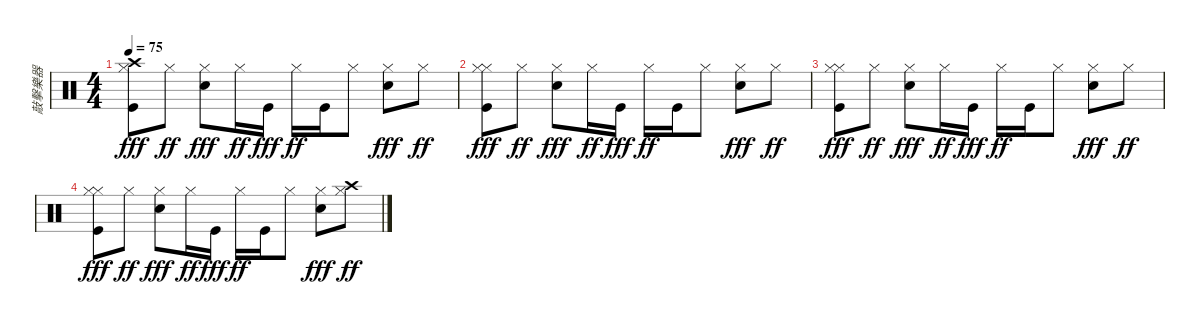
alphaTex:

\track ("敲擊樂器" "敲擊樂器") {instrument percussion}
\staff {score}
\articulation defaults
\ts (4 4)
\tempo 75
\clef neutral
\ks c
("Hi-Hat (closed)" "Crash high (hit)" "Kick (hit)").8{dy fff} "Hi-Hat (closed)".8{dy ff} ("Hi-Hat (closed)" "Snare (hit) 2").8{dy fff} "Hi-Hat (closed)".16{dy ff} "Kick (hit)".16{dy fff} "Hi-Hat (closed)".16{dy ff} "Kick (hit)".16 "Hi-Hat (closed)".8 ("Hi-Hat (closed)" "Snare (hit) 2").8{dy fff} "Hi-Hat (closed)".8{dy ff} |
("Hi-Hat (closed)" "Hi-Hat (closed)" "Kick (hit)").8{dy fff} "Hi-Hat (closed)".8{dy ff} ("Hi-Hat (closed)" "Snare (hit) 2").8{dy fff} "Hi-Hat (closed)".16{dy ff} "Kick (hit)".16{dy fff} "Hi-Hat (closed)".16{dy ff} "Kick (hit)".16 "Hi-Hat (closed)".8 ("Hi-Hat (closed)" "Snare (hit) 2").8{dy fff} "Hi-Hat (closed)".8{dy ff} |
("Hi-Hat (closed)" "Hi-Hat (closed)" "Kick (hit)").8{dy fff} "Hi-Hat (closed)".8{dy ff} ("Hi-Hat (closed)" "Snare (hit) 2").8{dy fff} "Hi-Hat (closed)".16{dy ff} "Kick (hit)".16{dy fff} "Hi-Hat (closed)".16{dy ff} "Kick (hit)".16 "Hi-Hat (closed)".8 ("Hi-Hat (closed)" "Snare (hit) 2").8{dy fff} "Hi-Hat (closed)".8{dy ff} |
("Hi-Hat (closed)" "Hi-Hat (closed)" "Kick (hit)").8{dy fff} "Hi-Hat (closed)".8{dy ff} ("Hi-Hat (closed)" "Snare (hit) 2").8{dy fff} "Hi-Hat (closed)".16{dy ff} "Kick (hit)".16{dy fff} "Hi-Hat (closed)".16{dy ff} "Kick (hit)".16 "Hi-Hat (closed)".8 ("Hi-Hat (closed)" "Snare (hit) 2").8{dy fff} ("Hi-Hat (closed)" "Crash high (hit)").8{dy ff}
